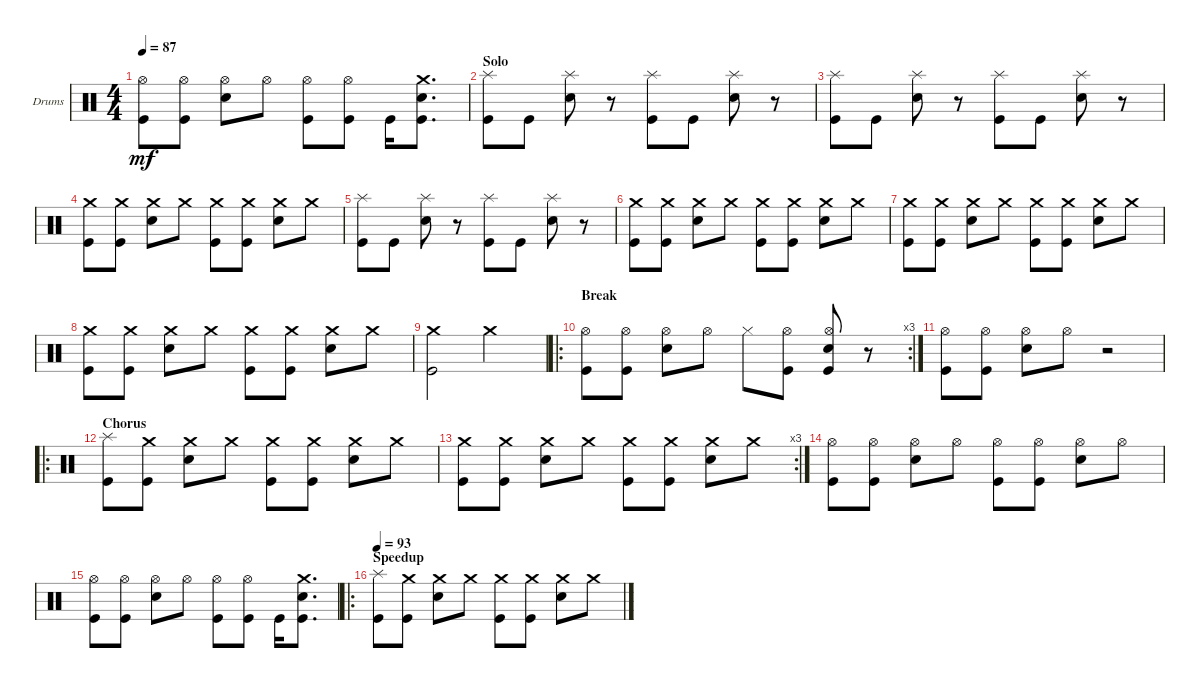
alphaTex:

\bracketExtendMode groupsimilarinstruments
\firstSystemTrackNameOrientation horizontal
\otherSystemsTrackNameOrientation horizontal
\track ("Drumkit" "Drums") {instrument percussion}
\staff {score}
\articulation defaults
\ts (4 4)
\tempo 87
\clef neutral
\ks c
("Kick (hit)" "Hi-Hat (open)").8{dy mf} ("Kick (hit)" "Hi-Hat (open)").8 ("Snare (hit) 2" "Hi-Hat (open)").8 "Hi-Hat (open)".8 ("Kick (hit)" "Hi-Hat (open)").8 ("Kick (hit)" "Hi-Hat (open)").8 "Kick (hit)".16 ("Snare (hit) 2" "Crash medium (hit)" "Kick (hit)").8{d} |
\section ("" "Solo")
("Kick (hit)" "Splash (hit)").8 "Kick (hit)".8 ("Snare (hit) 2" "Splash (hit)").8 r.8 ("Kick (hit)" "Splash (hit)").8 "Kick (hit)".8 ("Snare (hit) 2" "Splash (hit)").8 r.8 |
("Kick (hit)" "Splash (hit)").8 "Kick (hit)".8 ("Snare (hit) 2" "Splash (hit)").8 r.8 ("Kick (hit)" "Splash (hit)").8 "Kick (hit)".8 ("Snare (hit) 2" "Splash (hit)").8 r.8 |
("Kick (hit)" "Crash medium (hit)").8 ("Kick (hit)" "Crash medium (hit)").8 ("Snare (hit) 2" "Crash medium (hit)").8 "Crash medium (hit)".8 ("Kick (hit)" "Crash medium (hit)").8 ("Kick (hit)" "Crash medium (hit)").8 ("Snare (hit) 2" "Crash medium (hit)").8 "Crash medium (hit)".8 |
("Kick (hit)" "Splash (hit)").8 "Kick (hit)".8 ("Snare (hit) 2" "Splash (hit)").8 r.8 ("Kick (hit)" "Splash (hit)").8 "Kick (hit)".8 ("Snare (hit) 2" "Splash (hit)").8 r.8 |
("Kick (hit)" "Crash medium (hit)").8 ("Kick (hit)" "Crash medium (hit)").8 ("Snare (hit) 2" "Crash medium (hit)").8 "Crash medium (hit)".8 ("Kick (hit)" "Crash medium (hit)").8 ("Kick (hit)" "Crash medium (hit)").8 ("Snare (hit) 2" "Crash medium (hit)").8 "Crash medium (hit)".8 |
("Kick (hit)" "Crash medium (hit)").8 ("Kick (hit)" "Crash medium (hit)").8 ("Snare (hit) 2" "Crash medium (hit)").8 "Crash medium (hit)".8 ("Kick (hit)" "Crash medium (hit)").8 ("Kick (hit)" "Crash medium (hit)").8 ("Snare (hit) 2" "Crash medium (hit)").8 "Crash medium (hit)".8 |
("Kick (hit)" "Crash medium (hit)").8 ("Kick (hit)" "Crash medium (hit)").8 ("Snare (hit) 2" "Crash medium (hit)").8 "Crash medium (hit)".8 ("Kick (hit)" "Crash medium (hit)").8 ("Kick (hit)" "Crash medium (hit)").8 ("Snare (hit) 2" "Crash medium (hit)").8 "Crash medium (hit)".8 |
("Crash medium (hit)" "Kick (hit)").2 "Crash medium (hit)".2 |
\ro
\rc 3
\section ("" "Break")
("Hi-Hat (open)" "Kick (hit)").8 ("Hi-Hat (open)" "Kick (hit)").8 ("Hi-Hat (open)" "Snare (hit) 2").8 "Hi-Hat (open)".8 "Hi-Hat (closed)".8 ("Hi-Hat (open)" "Kick (hit)").8 ("Hi-Hat (open)" "Kick (hit)" "Snare (hit) 2").8 r.8 |
("Hi-Hat (open)" "Kick (hit)").8 ("Hi-Hat (open)" "Kick (hit)").8 ("Hi-Hat (open)" "Snare (hit) 2").8 "Hi-Hat (open)".8 r.2 |
\ro
\section ("" "Chorus")
("Kick (hit)" "Splash (hit)").8 ("Kick (hit)" "Crash medium (hit)").8 ("Snare (hit) 2" "Crash medium (hit)").8 "Crash medium (hit)".8 ("Kick (hit)" "Crash medium (hit)").8 ("Kick (hit)" "Crash medium (hit)").8 ("Snare (hit) 2" "Crash medium (hit)").8 "Crash medium (hit)".8 |
\rc 3
("Kick (hit)" "Crash medium (hit)").8 ("Kick (hit)" "Crash medium (hit)").8 ("Snare (hit) 2" "Crash medium (hit)").8 "Crash medium (hit)".8 ("Kick (hit)" "Crash medium (hit)").8 ("Kick (hit)" "Crash medium (hit)").8 ("Snare (hit) 2" "Crash medium (hit)").8 "Crash medium (hit)".8 |
("Kick (hit)" "Hi-Hat (open)").8 ("Kick (hit)" "Hi-Hat (open)").8 ("Snare (hit) 2" "Hi-Hat (open)").8 "Hi-Hat (open)".8 ("Kick (hit)" "Hi-Hat (open)").8 ("Kick (hit)" "Hi-Hat (open)").8 ("Snare (hit) 2" "Hi-Hat (open)").8 "Hi-Hat (open)".8 |
("Kick (hit)" "Hi-Hat (open)").8 ("Kick (hit)" "Hi-Hat (open)").8 ("Snare (hit) 2" "Hi-Hat (open)").8 "Hi-Hat (open)".8 ("Kick (hit)" "Hi-Hat (open)").8 ("Kick (hit)" "Hi-Hat (open)").8 "Kick (hit)".16 ("Snare (hit) 2" "Crash medium (hit)" "Kick (hit)").8{d} |
\ro
\section ("" "Speedup")
\tempo 93
("Kick (hit)" "Splash (hit)").8 ("Kick (hit)" "Crash medium (hit)").8 ("Snare (hit) 2" "Crash medium (hit)").8 "Crash medium (hit)".8 ("Kick (hit)" "Crash medium (hit)").8 ("Kick (hit)" "Crash medium (hit)").8 ("Snare (hit) 2" "Crash medium (hit)").8 "Crash medium (hit)".8
